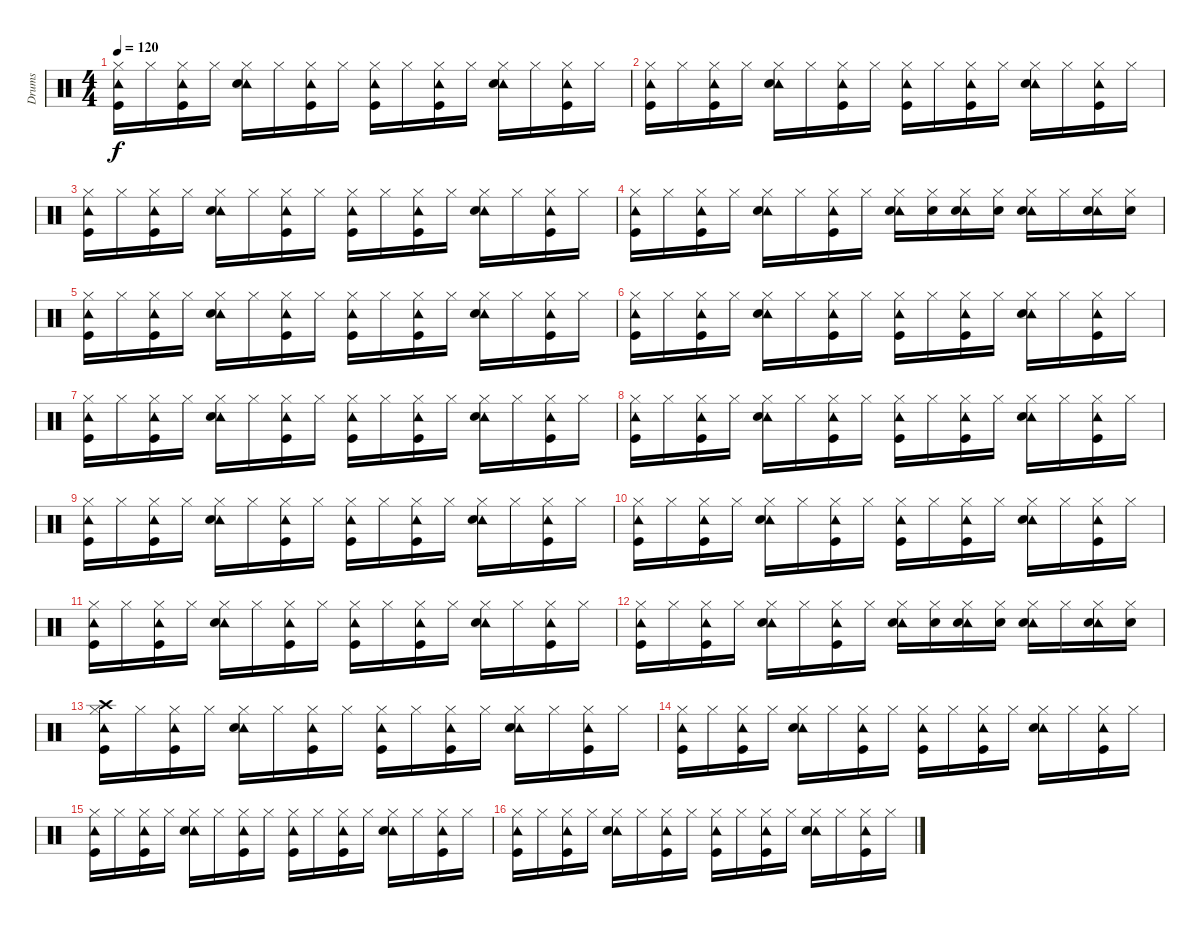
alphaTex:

\track ("Drums" "Drums") {instrument percussion}
\staff {score}
\articulation defaults
\ts (4 4)
\tempo 120
\clef neutral
\ks c
("Hi-Hat (closed)" "Tambourine (hit)" "Kick (hit)").16{dy f} "Hi-Hat (closed)".16 ("Hi-Hat (closed)" "Tambourine (hit)" "Kick (hit)").16 "Hi-Hat (closed)".16 ("Hi-Hat (closed)" "Tambourine (hit)" "Snare (hit) 2").16 "Hi-Hat (closed)".16 ("Hi-Hat (closed)" "Tambourine (hit)" "Kick (hit)").16 "Hi-Hat (closed)".16 ("Hi-Hat (closed)" "Tambourine (hit)" "Kick (hit)").16 "Hi-Hat (closed)".16 ("Hi-Hat (closed)" "Tambourine (hit)" "Kick (hit)").16 "Hi-Hat (closed)".16 ("Hi-Hat (closed)" "Tambourine (hit)" "Snare (hit) 2").16 "Hi-Hat (closed)".16 ("Hi-Hat (closed)" "Tambourine (hit)" "Kick (hit)").16 "Hi-Hat (closed)".16 |
("Hi-Hat (closed)" "Tambourine (hit)" "Kick (hit)").16 "Hi-Hat (closed)".16 ("Hi-Hat (closed)" "Tambourine (hit)" "Kick (hit)").16 "Hi-Hat (closed)".16 ("Hi-Hat (closed)" "Tambourine (hit)" "Snare (hit) 2").16 "Hi-Hat (closed)".16 ("Hi-Hat (closed)" "Tambourine (hit)" "Kick (hit)").16 "Hi-Hat (closed)".16 ("Hi-Hat (closed)" "Tambourine (hit)" "Kick (hit)").16 "Hi-Hat (closed)".16 ("Hi-Hat (closed)" "Tambourine (hit)" "Kick (hit)").16 "Hi-Hat (closed)".16 ("Hi-Hat (closed)" "Tambourine (hit)" "Snare (hit) 2").16 "Hi-Hat (closed)".16 ("Hi-Hat (closed)" "Tambourine (hit)" "Kick (hit)").16 "Hi-Hat (closed)".16 |
("Hi-Hat (closed)" "Tambourine (hit)" "Kick (hit)").16 "Hi-Hat (closed)".16 ("Hi-Hat (closed)" "Tambourine (hit)" "Kick (hit)").16 "Hi-Hat (closed)".16 ("Hi-Hat (closed)" "Tambourine (hit)" "Snare (hit) 2").16 "Hi-Hat (closed)".16 ("Hi-Hat (closed)" "Tambourine (hit)" "Kick (hit)").16 "Hi-Hat (closed)".16 ("Hi-Hat (closed)" "Tambourine (hit)" "Kick (hit)").16 "Hi-Hat (closed)".16 ("Hi-Hat (closed)" "Tambourine (hit)" "Kick (hit)").16 "Hi-Hat (closed)".16 ("Hi-Hat (closed)" "Tambourine (hit)" "Snare (hit) 2").16 "Hi-Hat (closed)".16 ("Hi-Hat (closed)" "Tambourine (hit)" "Kick (hit)").16 "Hi-Hat (closed)".16 |
("Hi-Hat (closed)" "Tambourine (hit)" "Kick (hit)").16 "Hi-Hat (closed)".16 ("Hi-Hat (closed)" "Tambourine (hit)" "Kick (hit)").16 "Hi-Hat (closed)".16 ("Hi-Hat (closed)" "Tambourine (hit)" "Snare (hit) 2").16 "Hi-Hat (closed)".16 ("Hi-Hat (closed)" "Tambourine (hit)" "Kick (hit)").16 "Hi-Hat (closed)".16 ("Hi-Hat (closed)" "Tambourine (hit)" "Snare (hit) 2").16 ("Hi-Hat (closed)" "Snare (hit) 2").16 ("Hi-Hat (closed)" "Tambourine (hit)" "Snare (hit) 2").16 ("Hi-Hat (closed)" "Snare (hit) 2").16 ("Hi-Hat (closed)" "Tambourine (hit)" "Snare (hit) 2").16 "Hi-Hat (closed)".16 ("Hi-Hat (closed)" "Tambourine (hit)" "Snare (hit) 2").16 ("Hi-Hat (closed)" "Snare (hit) 2").16 |
("Hi-Hat (closed)" "Tambourine (hit)" "Kick (hit)").16 "Hi-Hat (closed)".16 ("Hi-Hat (closed)" "Tambourine (hit)" "Kick (hit)").16 "Hi-Hat (closed)".16 ("Hi-Hat (closed)" "Tambourine (hit)" "Snare (hit) 2").16 "Hi-Hat (closed)".16 ("Hi-Hat (closed)" "Tambourine (hit)" "Kick (hit)").16 "Hi-Hat (closed)".16 ("Hi-Hat (closed)" "Tambourine (hit)" "Kick (hit)").16 "Hi-Hat (closed)".16 ("Hi-Hat (closed)" "Tambourine (hit)" "Kick (hit)").16 "Hi-Hat (closed)".16 ("Hi-Hat (closed)" "Tambourine (hit)" "Snare (hit) 2").16 "Hi-Hat (closed)".16 ("Hi-Hat (closed)" "Tambourine (hit)" "Kick (hit)").16 "Hi-Hat (closed)".16 |
("Hi-Hat (closed)" "Tambourine (hit)" "Kick (hit)").16 "Hi-Hat (closed)".16 ("Hi-Hat (closed)" "Tambourine (hit)" "Kick (hit)").16 "Hi-Hat (closed)".16 ("Hi-Hat (closed)" "Tambourine (hit)" "Snare (hit) 2").16 "Hi-Hat (closed)".16 ("Hi-Hat (closed)" "Tambourine (hit)" "Kick (hit)").16 "Hi-Hat (closed)".16 ("Hi-Hat (closed)" "Tambourine (hit)" "Kick (hit)").16 "Hi-Hat (closed)".16 ("Hi-Hat (closed)" "Tambourine (hit)" "Kick (hit)").16 "Hi-Hat (closed)".16 ("Hi-Hat (closed)" "Tambourine (hit)" "Snare (hit) 2").16 "Hi-Hat (closed)".16 ("Hi-Hat (closed)" "Tambourine (hit)" "Kick (hit)").16 "Hi-Hat (closed)".16 |
("Hi-Hat (closed)" "Tambourine (hit)" "Kick (hit)").16 "Hi-Hat (closed)".16 ("Hi-Hat (closed)" "Tambourine (hit)" "Kick (hit)").16 "Hi-Hat (closed)".16 ("Hi-Hat (closed)" "Tambourine (hit)" "Snare (hit) 2").16 "Hi-Hat (closed)".16 ("Hi-Hat (closed)" "Tambourine (hit)" "Kick (hit)").16 "Hi-Hat (closed)".16 ("Hi-Hat (closed)" "Tambourine (hit)" "Kick (hit)").16 "Hi-Hat (closed)".16 ("Hi-Hat (closed)" "Tambourine (hit)" "Kick (hit)").16 "Hi-Hat (closed)".16 ("Hi-Hat (closed)" "Tambourine (hit)" "Snare (hit) 2").16 "Hi-Hat (closed)".16 ("Hi-Hat (closed)" "Tambourine (hit)" "Kick (hit)").16 "Hi-Hat (closed)".16 |
("Hi-Hat (closed)" "Tambourine (hit)" "Kick (hit)").16 "Hi-Hat (closed)".16 ("Hi-Hat (closed)" "Tambourine (hit)" "Kick (hit)").16 "Hi-Hat (closed)".16 ("Hi-Hat (closed)" "Tambourine (hit)" "Snare (hit) 2").16 "Hi-Hat (closed)".16 ("Hi-Hat (closed)" "Tambourine (hit)" "Kick (hit)").16 "Hi-Hat (closed)".16 ("Hi-Hat (closed)" "Tambourine (hit)" "Kick (hit)").16 "Hi-Hat (closed)".16 ("Hi-Hat (closed)" "Tambourine (hit)" "Kick (hit)").16 "Hi-Hat (closed)".16 ("Hi-Hat (closed)" "Tambourine (hit)" "Snare (hit) 2").16 "Hi-Hat (closed)".16 ("Hi-Hat (closed)" "Tambourine (hit)" "Kick (hit)").16 "Hi-Hat (closed)".16 |
("Hi-Hat (closed)" "Tambourine (hit)" "Kick (hit)").16 "Hi-Hat (closed)".16 ("Hi-Hat (closed)" "Tambourine (hit)" "Kick (hit)").16 "Hi-Hat (closed)".16 ("Hi-Hat (closed)" "Tambourine (hit)" "Snare (hit) 2").16 "Hi-Hat (closed)".16 ("Hi-Hat (closed)" "Tambourine (hit)" "Kick (hit)").16 "Hi-Hat (closed)".16 ("Hi-Hat (closed)" "Tambourine (hit)" "Kick (hit)").16 "Hi-Hat (closed)".16 ("Hi-Hat (closed)" "Tambourine (hit)" "Kick (hit)").16 "Hi-Hat (closed)".16 ("Hi-Hat (closed)" "Tambourine (hit)" "Snare (hit) 2").16 "Hi-Hat (closed)".16 ("Hi-Hat (closed)" "Tambourine (hit)" "Kick (hit)").16 "Hi-Hat (closed)".16 |
("Hi-Hat (closed)" "Tambourine (hit)" "Kick (hit)").16 "Hi-Hat (closed)".16 ("Hi-Hat (closed)" "Tambourine (hit)" "Kick (hit)").16 "Hi-Hat (closed)".16 ("Hi-Hat (closed)" "Tambourine (hit)" "Snare (hit) 2").16 "Hi-Hat (closed)".16 ("Hi-Hat (closed)" "Tambourine (hit)" "Kick (hit)").16 "Hi-Hat (closed)".16 ("Hi-Hat (closed)" "Tambourine (hit)" "Kick (hit)").16 "Hi-Hat (closed)".16 ("Hi-Hat (closed)" "Tambourine (hit)" "Kick (hit)").16 "Hi-Hat (closed)".16 ("Hi-Hat (closed)" "Tambourine (hit)" "Snare (hit) 2").16 "Hi-Hat (closed)".16 ("Hi-Hat (closed)" "Tambourine (hit)" "Kick (hit)").16 "Hi-Hat (closed)".16 |
("Hi-Hat (closed)" "Tambourine (hit)" "Kick (hit)").16 "Hi-Hat (closed)".16 ("Hi-Hat (closed)" "Tambourine (hit)" "Kick (hit)").16 "Hi-Hat (closed)".16 ("Hi-Hat (closed)" "Tambourine (hit)" "Snare (hit) 2").16 "Hi-Hat (closed)".16 ("Hi-Hat (closed)" "Tambourine (hit)" "Kick (hit)").16 "Hi-Hat (closed)".16 ("Hi-Hat (closed)" "Tambourine (hit)" "Kick (hit)").16 "Hi-Hat (closed)".16 ("Hi-Hat (closed)" "Tambourine (hit)" "Kick (hit)").16 "Hi-Hat (closed)".16 ("Hi-Hat (closed)" "Tambourine (hit)" "Snare (hit) 2").16 "Hi-Hat (closed)".16 ("Hi-Hat (closed)" "Tambourine (hit)" "Kick (hit)").16 "Hi-Hat (closed)".16 |
("Hi-Hat (closed)" "Tambourine (hit)" "Kick (hit)").16 "Hi-Hat (closed)".16 ("Hi-Hat (closed)" "Tambourine (hit)" "Kick (hit)").16 "Hi-Hat (closed)".16 ("Hi-Hat (closed)" "Tambourine (hit)" "Snare (hit) 2").16 "Hi-Hat (closed)".16 ("Hi-Hat (closed)" "Tambourine (hit)" "Kick (hit)").16 "Hi-Hat (closed)".16 ("Hi-Hat (closed)" "Tambourine (hit)" "Snare (hit) 2").16 ("Hi-Hat (closed)" "Snare (hit) 2").16 ("Hi-Hat (closed)" "Tambourine (hit)" "Snare (hit) 2").16 ("Hi-Hat (closed)" "Snare (hit) 2").16 ("Hi-Hat (closed)" "Tambourine (hit)" "Snare (hit) 2").16 "Hi-Hat (closed)".16 ("Hi-Hat (closed)" "Tambourine (hit)" "Snare (hit) 2").16 ("Hi-Hat (closed)" "Snare (hit) 2").16 |
("Crash high (hit)" "Hi-Hat (closed)" "Tambourine (hit)" "Kick (hit)").16 "Hi-Hat (closed)".16 ("Hi-Hat (closed)" "Tambourine (hit)" "Kick (hit)").16 "Hi-Hat (closed)".16 ("Hi-Hat (closed)" "Tambourine (hit)" "Snare (hit) 2").16 "Hi-Hat (closed)".16 ("Hi-Hat (closed)" "Tambourine (hit)" "Kick (hit)").16 "Hi-Hat (closed)".16 ("Hi-Hat (closed)" "Tambourine (hit)" "Kick (hit)").16 "Hi-Hat (closed)".16 ("Hi-Hat (closed)" "Tambourine (hit)" "Kick (hit)").16 "Hi-Hat (closed)".16 ("Hi-Hat (closed)" "Tambourine (hit)" "Snare (hit) 2").16 "Hi-Hat (closed)".16 ("Hi-Hat (closed)" "Tambourine (hit)" "Kick (hit)").16 "Hi-Hat (closed)".16 |
("Hi-Hat (closed)" "Tambourine (hit)" "Kick (hit)").16 "Hi-Hat (closed)".16 ("Hi-Hat (closed)" "Tambourine (hit)" "Kick (hit)").16 "Hi-Hat (closed)".16 ("Hi-Hat (closed)" "Tambourine (hit)" "Snare (hit) 2").16 "Hi-Hat (closed)".16 ("Hi-Hat (closed)" "Tambourine (hit)" "Kick (hit)").16 "Hi-Hat (closed)".16 ("Hi-Hat (closed)" "Tambourine (hit)" "Kick (hit)").16 "Hi-Hat (closed)".16 ("Hi-Hat (closed)" "Tambourine (hit)" "Kick (hit)").16 "Hi-Hat (closed)".16 ("Hi-Hat (closed)" "Tambourine (hit)" "Snare (hit) 2").16 "Hi-Hat (closed)".16 ("Hi-Hat (closed)" "Tambourine (hit)" "Kick (hit)").16 "Hi-Hat (closed)".16 |
("Hi-Hat (closed)" "Tambourine (hit)" "Kick (hit)").16 "Hi-Hat (closed)".16 ("Hi-Hat (closed)" "Tambourine (hit)" "Kick (hit)").16 "Hi-Hat (closed)".16 ("Hi-Hat (closed)" "Tambourine (hit)" "Snare (hit) 2").16 "Hi-Hat (closed)".16 ("Hi-Hat (closed)" "Tambourine (hit)" "Kick (hit)").16 "Hi-Hat (closed)".16 ("Hi-Hat (closed)" "Tambourine (hit)" "Kick (hit)").16 "Hi-Hat (closed)".16 ("Hi-Hat (closed)" "Tambourine (hit)" "Kick (hit)").16 "Hi-Hat (closed)".16 ("Hi-Hat (closed)" "Tambourine (hit)" "Snare (hit) 2").16 "Hi-Hat (closed)".16 ("Hi-Hat (closed)" "Tambourine (hit)" "Kick (hit)").16 "Hi-Hat (closed)".16 |
("Hi-Hat (closed)" "Tambourine (hit)" "Kick (hit)").16 "Hi-Hat (closed)".16 ("Hi-Hat (closed)" "Tambourine (hit)" "Kick (hit)").16 "Hi-Hat (closed)".16 ("Hi-Hat (closed)" "Tambourine (hit)" "Snare (hit) 2").16 "Hi-Hat (closed)".16 ("Hi-Hat (closed)" "Tambourine (hit)" "Kick (hit)").16 "Hi-Hat (closed)".16 ("Hi-Hat (closed)" "Tambourine (hit)" "Kick (hit)").16 "Hi-Hat (closed)".16 ("Hi-Hat (closed)" "Tambourine (hit)" "Kick (hit)").16 "Hi-Hat (closed)".16 ("Hi-Hat (closed)" "Tambourine (hit)" "Snare (hit) 2").16 "Hi-Hat (closed)".16 ("Hi-Hat (closed)" "Tambourine (hit)" "Kick (hit)").16 "Hi-Hat (closed)".16
